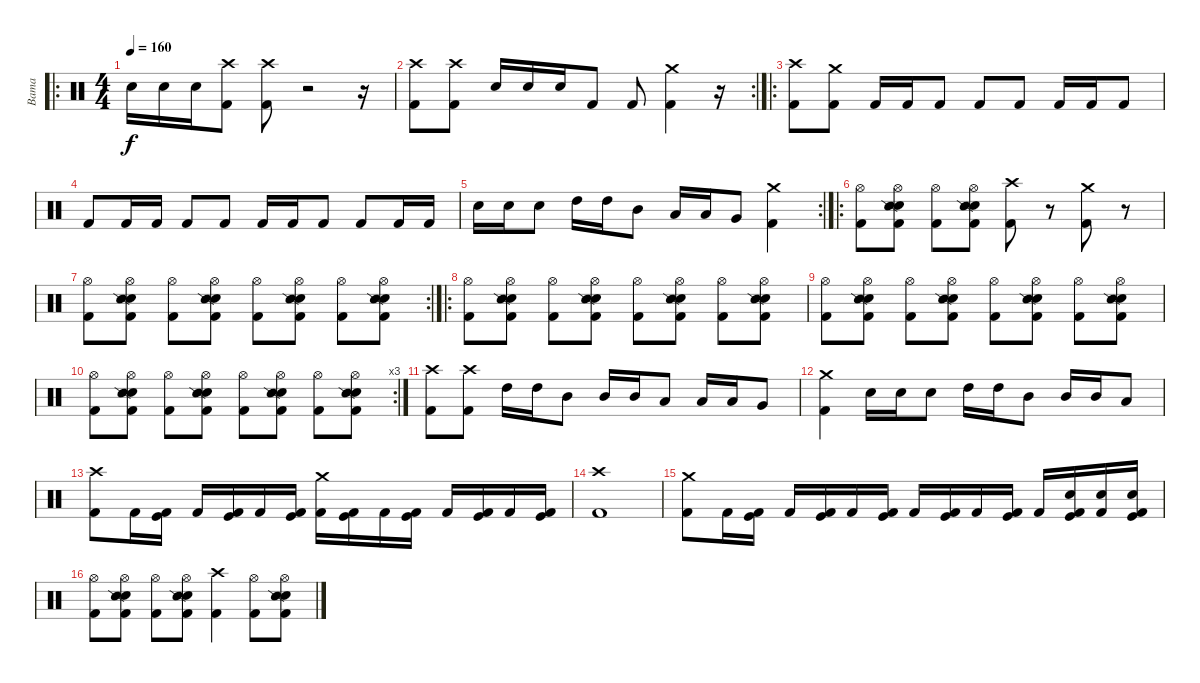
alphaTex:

\track ("Bama" "Bama") {instrument percussion}
\staff {score}
\articulation defaults
\ro
\ts (4 4)
\tempo 160
\clef neutral
\ks c "Electric Snare (hit)".16{dy f} "Electric Snare (hit)".16 "Electric Snare (hit)".16
("Crash high (hit)" "Kick (hit) 2").8 ("Crash high (hit)" "Kick (hit) 2").8 r.2 r.16 |
\rc 2
("Crash high (hit)" "Kick (hit) 2").8 ("Crash high (hit)" "Kick (hit) 2").8 "Electric Snare (hit)".16 "Electric Snare (hit)".16 "Electric Snare (hit)".16 "Kick (hit) 2".8 "Kick (hit) 2".8 ("Crash medium (hit)" "Kick (hit) 2").4 r.16 |
\ro
("Crash high (hit)" "Kick (hit) 2").8 ("Crash medium (hit)" "Kick (hit) 2").8 "Kick (hit) 2".16 "Kick (hit) 2".16 "Kick (hit) 2".8 "Kick (hit) 2".8 "Kick (hit) 2".8 "Kick (hit) 2".16 "Kick (hit) 2".16 "Kick (hit) 2".8 |
"Kick (hit) 2".8 "Kick (hit) 2".16 "Kick (hit) 2".16 "Kick (hit) 2".8 "Kick (hit) 2".8 "Kick (hit) 2".16 "Kick (hit) 2".16 "Kick (hit) 2".8 "Kick (hit) 2".8 "Kick (hit) 2".16 "Kick (hit) 2".16 |
\rc 2 "Electric Snare (hit)".16 "Electric Snare (hit)".16 "Electric Snare (hit)".8 "High Tom (hit)".16 "High Tom (hit)".16 "Mid Tom (hit)".8 "Low Tom (hit)".16 "Low Tom (hit)".16 "Very Low Tom (hit)".8
("Crash medium (hit)" "Kick (hit) 2").4 |
\ro
("Hi-Hat (open)" "Kick (hit) 2").8 ("Hi-Hat (open)" "Electric Snare (hit)" "Snare (side stick) 2" "Kick (hit) 2").8 ("Hi-Hat (open)" "Kick (hit) 2").8 ("Hi-Hat (open)" "Electric Snare (hit)" "Snare (side stick) 2" "Kick (hit) 2").8 ("Crash high (hit)" "Kick (hit) 2").8 r.8 ("Crash medium (hit)" "Kick (hit) 2").8 r.8 |
\rc 2
("Hi-Hat (open)" "Kick (hit) 2").8 ("Hi-Hat (open)" "Electric Snare (hit)" "Snare (side stick) 2" "Kick (hit) 2").8 ("Hi-Hat (open)" "Kick (hit) 2").8 ("Hi-Hat (open)" "Electric Snare (hit)" "Snare (side stick) 2" "Kick (hit) 2").8 ("Hi-Hat (open)" "Kick (hit) 2").8 ("Hi-Hat (open)" "Electric Snare (hit)" "Snare (side stick) 2" "Kick (hit) 2").8 ("Hi-Hat (open)" "Kick (hit) 2").8 ("Hi-Hat (open)" "Electric Snare (hit)" "Snare (side stick) 2" "Kick (hit) 2").8 |
\ro
("Hi-Hat (open)" "Kick (hit) 2").8 ("Hi-Hat (open)" "Electric Snare (hit)" "Snare (side stick) 2" "Kick (hit) 2").8 ("Hi-Hat (open)" "Kick (hit) 2").8 ("Hi-Hat (open)" "Electric Snare (hit)" "Snare (side stick) 2" "Kick (hit) 2").8 ("Hi-Hat (open)" "Kick (hit) 2").8 ("Hi-Hat (open)" "Electric Snare (hit)" "Snare (side stick) 2" "Kick (hit) 2").8 ("Hi-Hat (open)" "Kick (hit) 2").8 ("Hi-Hat (open)" "Electric Snare (hit)" "Snare (side stick) 2" "Kick (hit) 2").8 |
("Hi-Hat (open)" "Kick (hit) 2").8 ("Hi-Hat (open)" "Electric Snare (hit)" "Snare (side stick) 2" "Kick (hit) 2").8 ("Hi-Hat (open)" "Kick (hit) 2").8 ("Hi-Hat (open)" "Electric Snare (hit)" "Snare (side stick) 2" "Kick (hit) 2").8 ("Hi-Hat (open)" "Kick (hit) 2").8 ("Hi-Hat (open)" "Electric Snare (hit)" "Snare (side stick) 2" "Kick (hit) 2").8 ("Hi-Hat (open)" "Kick (hit) 2").8 ("Hi-Hat (open)" "Electric Snare (hit)" "Snare (side stick) 2" "Kick (hit) 2").8 |
\rc 3
("Hi-Hat (open)" "Kick (hit) 2").8 ("Hi-Hat (open)" "Electric Snare (hit)" "Snare (side stick) 2" "Kick (hit) 2").8 ("Hi-Hat (open)" "Kick (hit) 2").8 ("Hi-Hat (open)" "Electric Snare (hit)" "Snare (side stick) 2" "Kick (hit) 2").8 ("Hi-Hat (open)" "Kick (hit) 2").8 ("Hi-Hat (open)" "Electric Snare (hit)" "Snare (side stick) 2" "Kick (hit) 2").8 ("Hi-Hat (open)" "Kick (hit) 2").8 ("Hi-Hat (open)" "Electric Snare (hit)" "Snare (side stick) 2" "Kick (hit) 2").8 |
("Crash high (hit)" "Kick (hit) 2").8 ("Crash high (hit)" "Kick (hit) 2").8 "High Tom (hit)".16 "High Tom (hit)".16 "Mid Tom (hit)".8 "Mid Tom (hit)".16 "Mid Tom (hit)".16 "Low Tom (hit)".8 "Low Tom (hit)".16 "Low Tom (hit)".16 "Very Low Tom (hit)".8 |
("Crash medium (hit)" "Kick (hit) 2").4 "Electric Snare (hit)".16 "Electric Snare (hit)".16 "Electric Snare (hit)".8 "High Tom (hit)".16 "High Tom (hit)".16 "Mid Tom (hit)".8 "Mid Tom (hit)".16 "Mid Tom (hit)".16 "Low Tom (hit)".8 |
("Crash high (hit)" "Kick (hit) 2").8 "Kick (hit) 2".16 ("Kick (hit)" "Kick (hit) 2").16 "Kick (hit) 2".16 ("Kick (hit)" "Kick (hit) 2").16 "Kick (hit) 2".16 ("Kick (hit)" "Kick (hit) 2").16 ("Crash medium (hit)" "Kick (hit) 2").16 ("Kick (hit)" "Kick (hit) 2").16 "Kick (hit) 2".16 ("Kick (hit)" "Kick (hit) 2").16 "Kick (hit) 2".16 ("Kick (hit)" "Kick (hit) 2").16 "Kick (hit) 2".16 ("Kick (hit)" "Kick (hit) 2").16 |
("Crash high (hit)" "Kick (hit) 2").1 |
("Crash medium (hit)" "Kick (hit) 2").8 "Kick (hit) 2".16 ("Kick (hit)" "Kick (hit) 2").16 "Kick (hit) 2".16 ("Kick (hit)" "Kick (hit) 2").16 "Kick (hit) 2".16 ("Kick (hit)" "Kick (hit) 2").16 "Kick (hit) 2".16 ("Kick (hit)" "Kick (hit) 2").16 "Kick (hit) 2".16 ("Kick (hit)" "Kick (hit) 2").16 "Kick (hit) 2".16 ("Electric Snare (hit)" "Kick (hit)" "Kick (hit) 2").16 ("Electric Snare (hit)" "Kick (hit) 2").16 ("Electric Snare (hit)" "Kick (hit)" "Kick (hit) 2").16 |
("Hi-Hat (open)" "Kick (hit) 2").8 ("Hi-Hat (open)" "Electric Snare (hit)" "Snare (side stick) 2" "Kick (hit) 2").8 ("Hi-Hat (open)" "Kick (hit) 2").8 ("Hi-Hat (open)" "Electric Snare (hit)" "Snare (side stick) 2" "Kick (hit) 2").8 ("Crash high (hit)" "Kick (hit) 2").4 ("Hi-Hat (open)" "Kick (hit) 2").8 ("Hi-Hat (open)" "Electric Snare (hit)" "Snare (side stick) 2" "Kick (hit) 2").8
